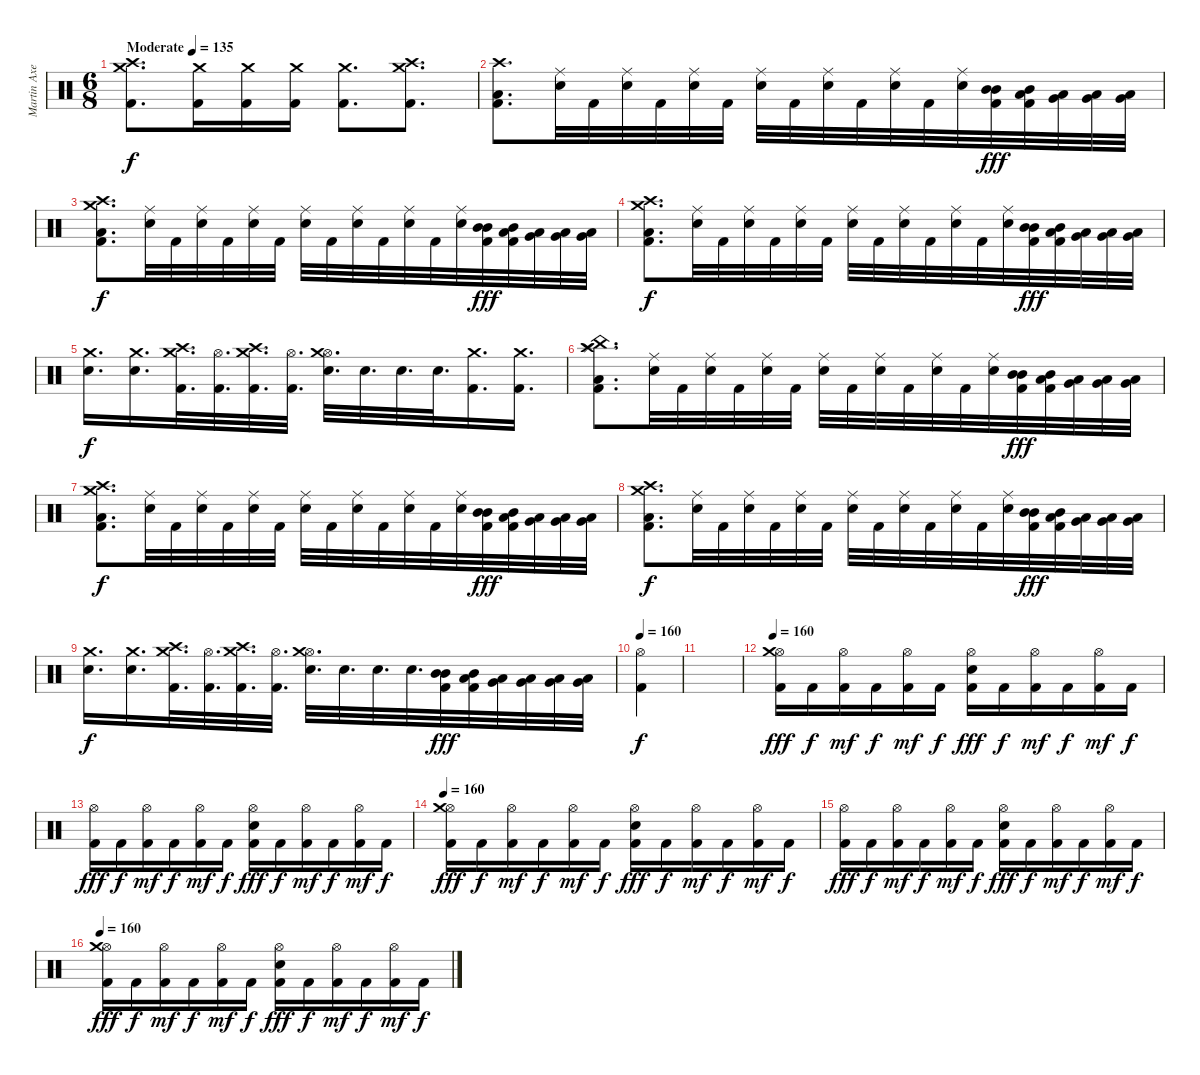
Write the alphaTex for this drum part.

\track ("Martin Axenrot" "Martin Axe") {instrument percussion}
\staff
\articulation defaults
\ts (6 8)
\tempo (135 "Moderate")
\clef neutral
\ks c
("Crash high (hit)" "Crash medium (hit)" "Kick (hit) 2").8{d dy f} ("Crash medium (hit)" "Kick (hit) 2").16 ("Crash medium (hit)" "Kick (hit) 2").16 ("Crash medium (hit)" "Kick (hit) 2").16 ("Crash medium (hit)" "Kick (hit) 2").8{d} ("Crash high (hit)" "Crash medium (hit)" "Kick (hit) 2").8{d} |
("Crash high (hit)" "Low Floor Tom (hit)" "Kick (hit) 2").8{d} ("Ride (middle)" "Snare (hit) 2").32 "Kick (hit) 2".32 ("Ride (middle)" "Snare (hit) 2").32 "Kick (hit) 2".32 ("Ride (middle)" "Snare (hit) 2").32 "Kick (hit) 2".32 ("Ride (middle)" "Snare (hit) 2").32 "Kick (hit) 2".32 ("Ride (middle)" "Snare (hit) 2").32 "Kick (hit) 2".32 ("Ride (middle)" "Snare (hit) 2").32 "Kick (hit) 2".32 ("Ride (middle)" "Snare (hit) 2").32 ("Mid Tom (hit)" "Mid Tom (hit)" "Kick (hit) 2").32{dy fff} ("Low Tom (hit)" "Mid Tom (hit)" "Kick (hit) 2").32 ("Very Low Tom (hit)" "Low Tom (hit)").32 ("Low Tom (hit)" "Very Low Tom (hit)").32 ("Very Low Tom (hit)" "Low Floor Tom (hit)").32 |
("Crash medium (hit)" "Crash high (hit)" "Low Floor Tom (hit)" "Kick (hit) 2").8{d dy f} ("Ride (middle)" "Snare (hit) 2").32 "Kick (hit) 2".32 ("Ride (middle)" "Snare (hit) 2").32 "Kick (hit) 2".32 ("Ride (middle)" "Snare (hit) 2").32 "Kick (hit) 2".32 ("Ride (middle)" "Snare (hit) 2").32 "Kick (hit) 2".32 ("Ride (middle)" "Snare (hit) 2").32 "Kick (hit) 2".32 ("Ride (middle)" "Snare (hit) 2").32 "Kick (hit) 2".32 ("Ride (middle)" "Snare (hit) 2").32 ("Mid Tom (hit)" "Mid Tom (hit)" "Kick (hit) 2").32{dy fff} ("Low Tom (hit)" "Mid Tom (hit)" "Kick (hit) 2").32 ("Very Low Tom (hit)" "Low Tom (hit)").32 ("Low Tom (hit)" "Very Low Tom (hit)").32 ("Very Low Tom (hit)" "Low Floor Tom (hit)").32 |
("Crash medium (hit)" "Crash high (hit)" "Low Floor Tom (hit)" "Kick (hit) 2").8{d dy f} ("Ride (middle)" "Snare (hit) 2").32 "Kick (hit) 2".32 ("Ride (middle)" "Snare (hit) 2").32 "Kick (hit) 2".32 ("Ride (middle)" "Snare (hit) 2").32 "Kick (hit) 2".32 ("Ride (middle)" "Snare (hit) 2").32 "Kick (hit) 2".32 ("Ride (middle)" "Snare (hit) 2").32 "Kick (hit) 2".32 ("Ride (middle)" "Snare (hit) 2").32 "Kick (hit) 2".32 ("Ride (middle)" "Snare (hit) 2").32 ("Mid Tom (hit)" "Mid Tom (hit)" "Kick (hit) 2").32{dy fff} ("Low Tom (hit)" "Mid Tom (hit)" "Kick (hit) 2").32 ("Very Low Tom (hit)" "Low Tom (hit)").32 ("Low Tom (hit)" "Very Low Tom (hit)").32 ("Very Low Tom (hit)" "Low Floor Tom (hit)").32 |
("Crash medium (hit)" "Snare (hit) 2").16{d dy f} ("Crash medium (hit)" "Snare (hit) 2").16{d} ("Crash medium (hit)" "Crash high (hit)" "Kick (hit) 2").32{d} ("Hi-Hat (open)" "Kick (hit) 2").32{d} ("Crash medium (hit)" "Crash high (hit)" "Kick (hit) 2").32{d} ("Hi-Hat (open)" "Kick (hit) 2").32{d} ("Hi-Hat (open)" "Crash medium (hit)" "Snare (hit) 2").32{d} "Snare (hit) 2".32{d} "Snare (hit) 2".32{d} "Snare (hit) 2".32{d} ("Crash medium (hit)" "Kick (hit) 2").16{d} ("Crash medium (hit)" "Kick (hit) 2").16{d} |
("China (hit)" "Splash (hit)" "Crash high (hit)" "Low Floor Tom (hit)" "Kick (hit) 2").8{d} ("Ride (middle)" "Snare (hit) 2").32 "Kick (hit) 2".32 ("Ride (middle)" "Snare (hit) 2").32 "Kick (hit) 2".32 ("Ride (middle)" "Snare (hit) 2").32 "Kick (hit) 2".32 ("Ride (middle)" "Snare (hit) 2").32 "Kick (hit) 2".32 ("Ride (middle)" "Snare (hit) 2").32 "Kick (hit) 2".32 ("Ride (middle)" "Snare (hit) 2").32 "Kick (hit) 2".32 ("Ride (middle)" "Snare (hit) 2").32 ("Mid Tom (hit)" "Mid Tom (hit)" "Kick (hit) 2").32{dy fff} ("Low Tom (hit)" "Mid Tom (hit)" "Kick (hit) 2").32 ("Very Low Tom (hit)" "Low Tom (hit)").32 ("Low Tom (hit)" "Very Low Tom (hit)").32 ("Very Low Tom (hit)" "Low Floor Tom (hit)").32 |
("Crash medium (hit)" "Crash high (hit)" "Low Floor Tom (hit)" "Kick (hit) 2").8{d dy f} ("Ride (middle)" "Snare (hit) 2").32 "Kick (hit) 2".32 ("Ride (middle)" "Snare (hit) 2").32 "Kick (hit) 2".32 ("Ride (middle)" "Snare (hit) 2").32 "Kick (hit) 2".32 ("Ride (middle)" "Snare (hit) 2").32 "Kick (hit) 2".32 ("Ride (middle)" "Snare (hit) 2").32 "Kick (hit) 2".32 ("Ride (middle)" "Snare (hit) 2").32 "Kick (hit) 2".32 ("Ride (middle)" "Snare (hit) 2").32 ("Mid Tom (hit)" "Mid Tom (hit)" "Kick (hit) 2").32{dy fff} ("Low Tom (hit)" "Mid Tom (hit)" "Kick (hit) 2").32 ("Very Low Tom (hit)" "Low Tom (hit)").32 ("Low Tom (hit)" "Very Low Tom (hit)").32 ("Very Low Tom (hit)" "Low Floor Tom (hit)").32 |
("Crash medium (hit)" "Crash high (hit)" "Low Floor Tom (hit)" "Kick (hit) 2").8{d dy f} ("Ride (middle)" "Snare (hit) 2").32 "Kick (hit) 2".32 ("Ride (middle)" "Snare (hit) 2").32 "Kick (hit) 2".32 ("Ride (middle)" "Snare (hit) 2").32 "Kick (hit) 2".32 ("Ride (middle)" "Snare (hit) 2").32 "Kick (hit) 2".32 ("Ride (middle)" "Snare (hit) 2").32 "Kick (hit) 2".32 ("Ride (middle)" "Snare (hit) 2").32 "Kick (hit) 2".32 ("Ride (middle)" "Snare (hit) 2").32 ("Mid Tom (hit)" "Mid Tom (hit)" "Kick (hit) 2").32{dy fff} ("Low Tom (hit)" "Mid Tom (hit)" "Kick (hit) 2").32 ("Very Low Tom (hit)" "Low Tom (hit)").32 ("Low Tom (hit)" "Very Low Tom (hit)").32 ("Very Low Tom (hit)" "Low Floor Tom (hit)").32 |
("Crash medium (hit)" "Snare (hit) 2").16{d dy f} ("Crash medium (hit)" "Snare (hit) 2").16{d} ("Crash medium (hit)" "Crash high (hit)" "Kick (hit) 2").32{d} ("Hi-Hat (open)" "Kick (hit) 2").32{d} ("Crash medium (hit)" "Crash high (hit)" "Kick (hit) 2").32{d} ("Hi-Hat (open)" "Kick (hit) 2").32{d} ("Hi-Hat (open)" "Crash medium (hit)" "Snare (hit) 2").32{d} "Snare (hit) 2".32{d} "Snare (hit) 2".32{d} "Snare (hit) 2".32{d} ("Mid Tom (hit)" "Mid Tom (hit)" "Kick (hit) 2").32{dy fff} ("Low Tom (hit)" "Mid Tom (hit)" "Kick (hit) 2").32 ("Very Low Tom (hit)" "Low Tom (hit)").32 ("Low Tom (hit)" "Very Low Tom (hit)").32 ("Very Low Tom (hit)" "Low Floor Tom (hit)").32 ("Low Tom (hit)" "Very Low Tom (hit)").32 |
\tempo 160
("Hi-Hat (open)" "Kick (hit) 2").4{dy f} |
|
\tempo 160
("Hi-Hat (open)" "Crash medium (hit)" "Kick (hit) 2").16{dy fff} "Kick (hit) 2".16{dy f} ("Hi-Hat (open)" "Kick (hit) 2").16{dy mf} "Kick (hit) 2".16{dy f} ("Hi-Hat (open)" "Kick (hit) 2").16{dy mf} "Kick (hit) 2".16{dy f} ("Hi-Hat (open)" "Snare (hit) 2" "Kick (hit) 2").16{dy fff} "Kick (hit) 2".16{dy f} ("Hi-Hat (open)" "Kick (hit) 2").16{dy mf} "Kick (hit) 2".16{dy f} ("Hi-Hat (open)" "Kick (hit) 2").16{dy mf} "Kick (hit) 2".16{dy f} |
("Hi-Hat (open)" "Kick (hit) 2").16{dy fff} "Kick (hit) 2".16{dy f} ("Hi-Hat (open)" "Kick (hit) 2").16{dy mf} "Kick (hit) 2".16{dy f} ("Hi-Hat (open)" "Kick (hit) 2").16{dy mf} "Kick (hit) 2".16{dy f} ("Hi-Hat (open)" "Snare (hit) 2" "Kick (hit) 2").16{dy fff} "Kick (hit) 2".16{dy f} ("Hi-Hat (open)" "Kick (hit) 2").16{dy mf} "Kick (hit) 2".16{dy f} ("Hi-Hat (open)" "Kick (hit) 2").16{dy mf} "Kick (hit) 2".16{dy f} |
\tempo 160
("Hi-Hat (open)" "Crash medium (hit)" "Kick (hit) 2").16{dy fff} "Kick (hit) 2".16{dy f} ("Hi-Hat (open)" "Kick (hit) 2").16{dy mf} "Kick (hit) 2".16{dy f} ("Hi-Hat (open)" "Kick (hit) 2").16{dy mf} "Kick (hit) 2".16{dy f} ("Hi-Hat (open)" "Snare (hit) 2" "Kick (hit) 2").16{dy fff} "Kick (hit) 2".16{dy f} ("Hi-Hat (open)" "Kick (hit) 2").16{dy mf} "Kick (hit) 2".16{dy f} ("Hi-Hat (open)" "Kick (hit) 2").16{dy mf} "Kick (hit) 2".16{dy f} |
("Hi-Hat (open)" "Kick (hit) 2").16{dy fff} "Kick (hit) 2".16{dy f} ("Hi-Hat (open)" "Kick (hit) 2").16{dy mf} "Kick (hit) 2".16{dy f} ("Hi-Hat (open)" "Kick (hit) 2").16{dy mf} "Kick (hit) 2".16{dy f} ("Hi-Hat (open)" "Snare (hit) 2" "Kick (hit) 2").16{dy fff} "Kick (hit) 2".16{dy f} ("Hi-Hat (open)" "Kick (hit) 2").16{dy mf} "Kick (hit) 2".16{dy f} ("Hi-Hat (open)" "Kick (hit) 2").16{dy mf} "Kick (hit) 2".16{dy f} |
\tempo 160
("Hi-Hat (open)" "Crash medium (hit)" "Kick (hit) 2").16{dy fff} "Kick (hit) 2".16{dy f} ("Hi-Hat (open)" "Kick (hit) 2").16{dy mf} "Kick (hit) 2".16{dy f} ("Hi-Hat (open)" "Kick (hit) 2").16{dy mf} "Kick (hit) 2".16{dy f} ("Hi-Hat (open)" "Snare (hit) 2" "Kick (hit) 2").16{dy fff} "Kick (hit) 2".16{dy f} ("Hi-Hat (open)" "Kick (hit) 2").16{dy mf} "Kick (hit) 2".16{dy f} ("Hi-Hat (open)" "Kick (hit) 2").16{dy mf} "Kick (hit) 2".16{dy f}
